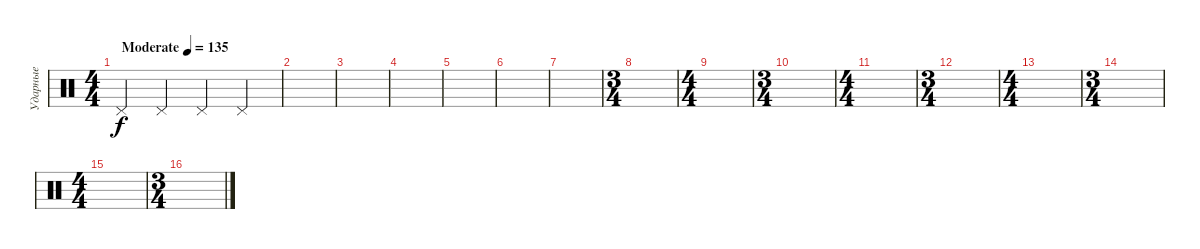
\track ("Ударные" "Ударные") {instrument percussion}
\staff {score}
\articulation defaults
\ts (4 4)
\tempo (135 "Moderate")
\clef neutral
\ks c "Pedal Hi-Hat (hit)".4{dy f} "Pedal Hi-Hat (hit)".4 "Pedal Hi-Hat (hit)".4 "Pedal Hi-Hat (hit)".4
|
|
|
|
|
|
|
\ts (3 4)
|
\ts (4 4)
|
\ts (3 4)
|
\ts (4 4)
|
\ts (3 4)
|
\ts (4 4)
|
\ts (3 4)
|
\ts (4 4)
|
\ts (3 4)
